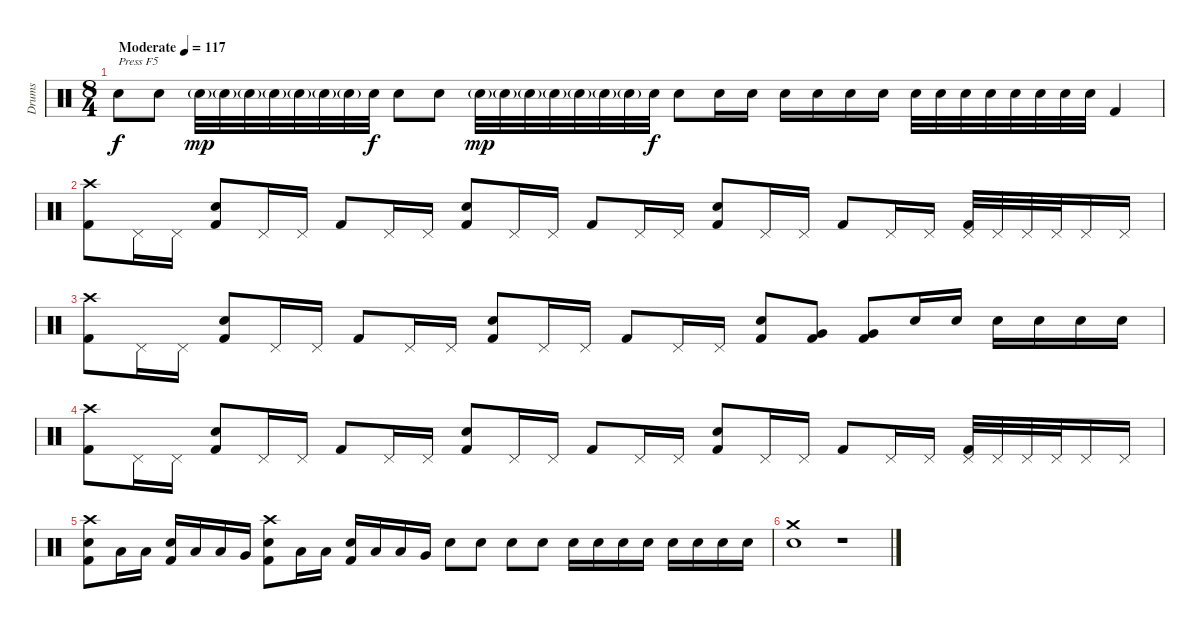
\track ("Drums" "Drums") {instrument percussion}
\staff {score}
\articulation defaults
\ts (8 4)
\tempo (117 "Moderate")
\clef neutral
\ks c "Snare (hit) 2".8{txt "Press F5" dy f} "Snare (hit) 2".8 "Snare (hit) 2"{g}.32{dy mp} "Snare (hit) 2"{g}.32 "Snare (hit) 2"{g}.32 "Snare (hit) 2"{g}.32 "Snare (hit) 2"{g}.32 "Snare (hit) 2"{g}.32 "Snare (hit) 2"{g}.32 "Snare (hit) 2".32{dy f} "Snare (hit) 2".8 "Snare (hit) 2".8 "Snare (hit) 2"{g}.32{dy mp} "Snare (hit) 2"{g}.32 "Snare (hit) 2"{g}.32 "Snare (hit) 2"{g}.32 "Snare (hit) 2"{g}.32 "Snare (hit) 2"{g}.32 "Snare (hit) 2"{g}.32 "Snare (hit) 2".32{dy f} "Snare (hit) 2".8 "Snare (hit) 2".16 "Snare (hit) 2".16 "Snare (hit) 2".16 "Snare (hit) 2".16 "Snare (hit) 2".16 "Snare (hit) 2".16 "Snare (hit) 2".32 "Snare (hit) 2".32 "Snare (hit) 2".32 "Snare (hit) 2".32 "Snare (hit) 2".32 "Snare (hit) 2".32 "Snare (hit) 2".32 "Snare (hit) 2".32 "Kick (hit) 2".4
|
("Crash high (hit)" "Kick (hit) 2").8 "Pedal Hi-Hat (hit)".16 "Pedal Hi-Hat (hit)".16 ("Snare (hit) 2" "Kick (hit) 2").8 "Pedal Hi-Hat (hit)".16 "Pedal Hi-Hat (hit)".16 "Kick (hit) 2".8 "Pedal Hi-Hat (hit)".16 "Pedal Hi-Hat (hit)".16 ("Snare (hit) 2" "Kick (hit) 2").8 "Pedal Hi-Hat (hit)".16 "Pedal Hi-Hat (hit)".16 "Kick (hit) 2".8 "Pedal Hi-Hat (hit)".16 "Pedal Hi-Hat (hit)".16 ("Snare (hit) 2" "Kick (hit) 2").8 "Pedal Hi-Hat (hit)".16 "Pedal Hi-Hat (hit)".16 "Kick (hit) 2".8 "Pedal Hi-Hat (hit)".16 "Pedal Hi-Hat (hit)".16 ("Pedal Hi-Hat (hit)" "Kick (hit) 2").32 "Pedal Hi-Hat (hit)".32 "Pedal Hi-Hat (hit)".32 "Pedal Hi-Hat (hit)".32 "Pedal Hi-Hat (hit)".16 "Pedal Hi-Hat (hit)".16 |
("Crash high (hit)" "Kick (hit) 2").8 "Pedal Hi-Hat (hit)".16 "Pedal Hi-Hat (hit)".16 ("Snare (hit) 2" "Kick (hit) 2").8 "Pedal Hi-Hat (hit)".16 "Pedal Hi-Hat (hit)".16 "Kick (hit) 2".8 "Pedal Hi-Hat (hit)".16 "Pedal Hi-Hat (hit)".16 ("Snare (hit) 2" "Kick (hit) 2").8 "Pedal Hi-Hat (hit)".16 "Pedal Hi-Hat (hit)".16 "Kick (hit) 2".8 "Pedal Hi-Hat (hit)".16 "Pedal Hi-Hat (hit)".16 ("Snare (hit) 2" "Kick (hit) 2").8 ("Very Low Tom (hit)" "Kick (hit) 2").8 ("Very Low Tom (hit)" "Kick (hit) 2").8 "Snare (hit) 2".16 "Snare (hit) 2".16 "Snare (hit) 2".16 "Snare (hit) 2".16 "Snare (hit) 2".16 "Snare (hit) 2".16 |
("Crash high (hit)" "Kick (hit) 2").8 "Pedal Hi-Hat (hit)".16 "Pedal Hi-Hat (hit)".16 ("Snare (hit) 2" "Kick (hit) 2").8 "Pedal Hi-Hat (hit)".16 "Pedal Hi-Hat (hit)".16 "Kick (hit) 2".8 "Pedal Hi-Hat (hit)".16 "Pedal Hi-Hat (hit)".16 ("Snare (hit) 2" "Kick (hit) 2").8 "Pedal Hi-Hat (hit)".16 "Pedal Hi-Hat (hit)".16 "Kick (hit) 2".8 "Pedal Hi-Hat (hit)".16 "Pedal Hi-Hat (hit)".16 ("Snare (hit) 2" "Kick (hit) 2").8 "Pedal Hi-Hat (hit)".16 "Pedal Hi-Hat (hit)".16 "Kick (hit) 2".8 "Pedal Hi-Hat (hit)".16 "Pedal Hi-Hat (hit)".16 ("Pedal Hi-Hat (hit)" "Kick (hit) 2").32 "Pedal Hi-Hat (hit)".32 "Pedal Hi-Hat (hit)".32 "Pedal Hi-Hat (hit)".32 "Pedal Hi-Hat (hit)".16 "Pedal Hi-Hat (hit)".16 |
("Crash high (hit)" "Snare (hit) 2" "Kick (hit) 2").8 "Low Floor Tom (hit)".16 "Low Floor Tom (hit)".16 ("Snare (hit) 2" "Kick (hit) 2").16 "Low Tom (hit)".16 "Low Tom (hit)".16 "Very Low Tom (hit)".16 ("Crash high (hit)" "Snare (hit) 2" "Kick (hit) 2").8 "Low Floor Tom (hit)".16 "Low Floor Tom (hit)".16 ("Snare (hit) 2" "Kick (hit) 2").16 "Low Tom (hit)".16 "Low Tom (hit)".16 "Very Low Tom (hit)".16 "Snare (hit) 2".8 "Snare (hit) 2".8 "Snare (hit) 2".8 "Snare (hit) 2".8 "Snare (hit) 2".16 "Snare (hit) 2".16 "Snare (hit) 2".16 "Snare (hit) 2".16 "Snare (hit) 2".16 "Snare (hit) 2".16 "Snare (hit) 2".16 "Snare (hit) 2".16 |
("Crash medium (hit)" "Snare (hit) 2").1 r.1
